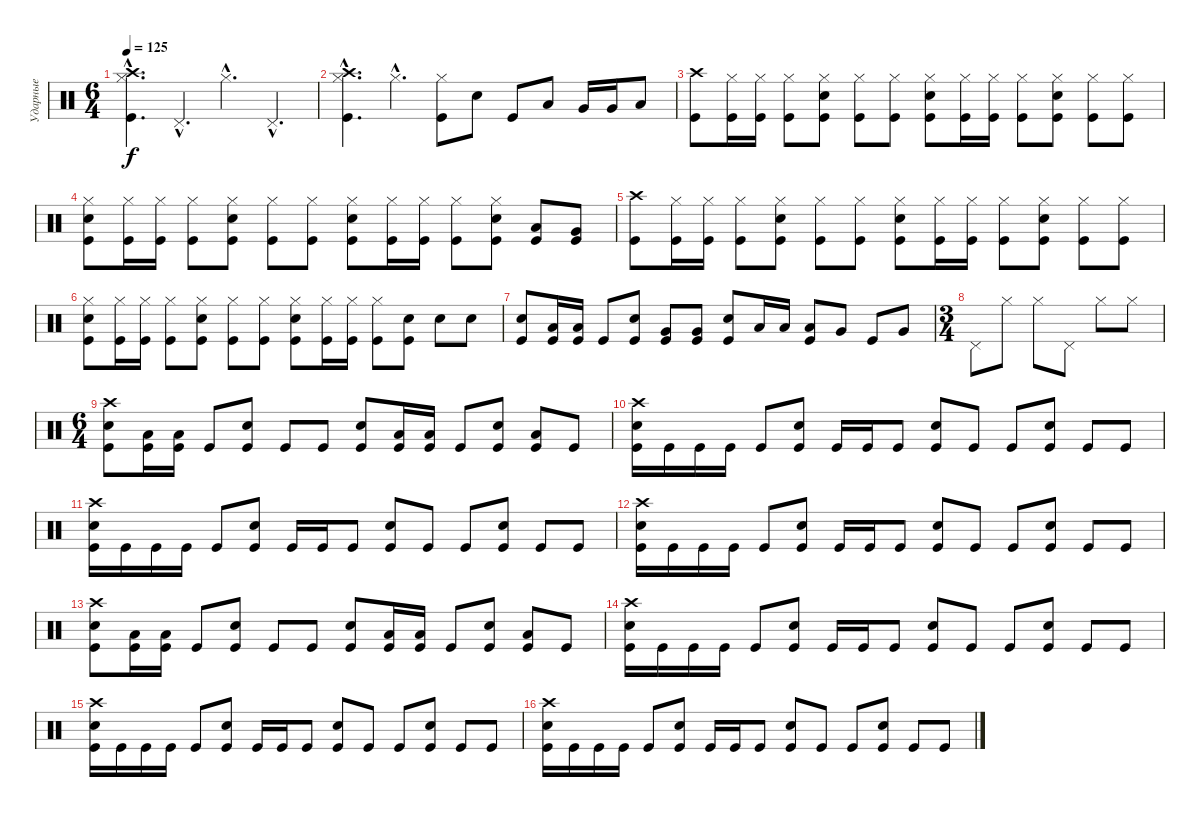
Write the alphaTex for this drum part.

\track ("Ударные" "Ударные") {instrument percussion}
\staff {score}
\articulation defaults
\ts (6 4)
\tempo 125
\clef neutral
\ks c
("Crash high (hit)"{hac} "Hi-Hat (closed)"{hac} "Kick (hit)"{hac}).4{d dy f} "Pedal Hi-Hat (hit)"{hac}.4{d} "Hi-Hat (closed)"{hac}.4{d} "Pedal Hi-Hat (hit)"{hac}.4{d} |
("Crash high (hit)"{hac} "Hi-Hat (closed)"{hac} "Kick (hit)"{hac}).4{d} "Hi-Hat (closed)"{hac}.4{d} ("Hi-Hat (closed)" "Kick (hit)").8 "Electric Snare (hit)".8 "Kick (hit)".8 "Low Tom (hit)".8 "Very Low Tom (hit)".16 "Very Low Tom (hit)".16 "Low Tom (hit)".8 |
("Crash high (hit)" "Kick (hit)").8 ("Hi-Hat (closed)" "Kick (hit)").16 ("Hi-Hat (closed)" "Kick (hit)").16 ("Hi-Hat (closed)" "Kick (hit)").8 ("Hi-Hat (closed)" "Electric Snare (hit)" "Kick (hit)").8 ("Hi-Hat (closed)" "Kick (hit)").8 ("Hi-Hat (closed)" "Kick (hit)").8 ("Hi-Hat (closed)" "Electric Snare (hit)" "Kick (hit)").8 ("Hi-Hat (closed)" "Kick (hit)").16 ("Hi-Hat (closed)" "Kick (hit)").16 ("Hi-Hat (closed)" "Kick (hit)").8 ("Hi-Hat (closed)" "Electric Snare (hit)" "Kick (hit)").8 ("Hi-Hat (closed)" "Kick (hit)").8 ("Hi-Hat (closed)" "Kick (hit)").8 |
("Hi-Hat (closed)" "Electric Snare (hit)" "Kick (hit)").8 ("Hi-Hat (closed)" "Kick (hit)").16 ("Hi-Hat (closed)" "Kick (hit)").16 ("Hi-Hat (closed)" "Kick (hit)").8 ("Hi-Hat (closed)" "Electric Snare (hit)" "Kick (hit)").8 ("Hi-Hat (closed)" "Kick (hit)").8 ("Hi-Hat (closed)" "Kick (hit)").8 ("Hi-Hat (closed)" "Electric Snare (hit)" "Kick (hit)").8 ("Hi-Hat (closed)" "Kick (hit)").16 ("Hi-Hat (closed)" "Kick (hit)").16 ("Hi-Hat (closed)" "Kick (hit)").8 ("Hi-Hat (closed)" "Electric Snare (hit)" "Kick (hit)").8 ("Low Tom (hit)" "Kick (hit)").8 ("Very Low Tom (hit)" "Kick (hit)").8 |
("Crash high (hit)" "Kick (hit)").8 ("Hi-Hat (closed)" "Kick (hit)").16 ("Hi-Hat (closed)" "Kick (hit)").16 ("Hi-Hat (closed)" "Kick (hit)").8 ("Hi-Hat (closed)" "Electric Snare (hit)" "Kick (hit)").8 ("Hi-Hat (closed)" "Kick (hit)").8 ("Hi-Hat (closed)" "Kick (hit)").8 ("Hi-Hat (closed)" "Electric Snare (hit)" "Kick (hit)").8 ("Hi-Hat (closed)" "Kick (hit)").16 ("Hi-Hat (closed)" "Kick (hit)").16 ("Hi-Hat (closed)" "Kick (hit)").8 ("Hi-Hat (closed)" "Electric Snare (hit)" "Kick (hit)").8 ("Hi-Hat (closed)" "Kick (hit)").8 ("Hi-Hat (closed)" "Kick (hit)").8 |
("Hi-Hat (closed)" "Electric Snare (hit)" "Kick (hit)").8 ("Hi-Hat (closed)" "Kick (hit)").16 ("Hi-Hat (closed)" "Kick (hit)").16 ("Hi-Hat (closed)" "Kick (hit)").8 ("Hi-Hat (closed)" "Electric Snare (hit)" "Kick (hit)").8 ("Hi-Hat (closed)" "Kick (hit)").8 ("Hi-Hat (closed)" "Kick (hit)").8 ("Hi-Hat (closed)" "Electric Snare (hit)" "Kick (hit)").8 ("Hi-Hat (closed)" "Kick (hit)").16 ("Hi-Hat (closed)" "Kick (hit)").16 ("Hi-Hat (closed)" "Kick (hit)").8 ("Electric Snare (hit)" "Kick (hit)").8 "Electric Snare (hit)".8 "Electric Snare (hit)".8 |
("Electric Snare (hit)" "Kick (hit)").8 ("Low Tom (hit)" "Kick (hit)").16 ("Low Tom (hit)" "Kick (hit)").16 "Kick (hit)".8 ("Electric Snare (hit)" "Kick (hit)").8 ("Very Low Tom (hit)" "Kick (hit)").8 ("Very Low Tom (hit)" "Kick (hit)").8 ("Electric Snare (hit)" "Kick (hit)").8 "Low Tom (hit)".16 "Low Tom (hit)".16 ("Low Tom (hit)" "Kick (hit)").8 "Very Low Tom (hit)".8 "Kick (hit)".8 "Very Low Tom (hit)".8 |
\ts (3 4)
"Pedal Hi-Hat (hit)".8 "Hi-Hat (closed)".8 "Hi-Hat (closed)".8 "Pedal Hi-Hat (hit)".8 "Hi-Hat (closed)".8 "Hi-Hat (closed)".8 |
\ts (6 4)
("Crash high (hit)" "Electric Snare (hit)" "Kick (hit)").8 ("Low Tom (hit)" "Kick (hit)").16 ("Low Tom (hit)" "Kick (hit)").16 "Kick (hit)".8 ("Electric Snare (hit)" "Kick (hit)").8 "Kick (hit)".8 "Kick (hit)".8 ("Electric Snare (hit)" "Kick (hit)").8 ("Low Tom (hit)" "Kick (hit)").16 ("Low Tom (hit)" "Kick (hit)").16 "Kick (hit)".8 ("Electric Snare (hit)" "Kick (hit)").8 ("Low Tom (hit)" "Kick (hit)").8 "Kick (hit)".8 |
("Crash high (hit)" "Electric Snare (hit)" "Kick (hit)").16 "Kick (hit)".16 "Kick (hit)".16 "Kick (hit)".16 "Kick (hit)".8 ("Electric Snare (hit)" "Kick (hit)").8 "Kick (hit)".16 "Kick (hit)".16 "Kick (hit)".8 ("Electric Snare (hit)" "Kick (hit)").8 "Kick (hit)".8 "Kick (hit)".8 ("Electric Snare (hit)" "Kick (hit)").8 "Kick (hit)".8 "Kick (hit)".8 |
("Crash high (hit)" "Electric Snare (hit)" "Kick (hit)").16 "Kick (hit)".16 "Kick (hit)".16 "Kick (hit)".16 "Kick (hit)".8 ("Electric Snare (hit)" "Kick (hit)").8 "Kick (hit)".16 "Kick (hit)".16 "Kick (hit)".8 ("Electric Snare (hit)" "Kick (hit)").8 "Kick (hit)".8 "Kick (hit)".8 ("Electric Snare (hit)" "Kick (hit)").8 "Kick (hit)".8 "Kick (hit)".8 |
("Crash high (hit)" "Electric Snare (hit)" "Kick (hit)").16 "Kick (hit)".16 "Kick (hit)".16 "Kick (hit)".16 "Kick (hit)".8 ("Electric Snare (hit)" "Kick (hit)").8 "Kick (hit)".16 "Kick (hit)".16 "Kick (hit)".8 ("Electric Snare (hit)" "Kick (hit)").8 "Kick (hit)".8 "Kick (hit)".8 ("Electric Snare (hit)" "Kick (hit)").8 "Kick (hit)".8 "Kick (hit)".8 |
("Crash high (hit)" "Electric Snare (hit)" "Kick (hit)").8 ("Low Tom (hit)" "Kick (hit)").16 ("Low Tom (hit)" "Kick (hit)").16 "Kick (hit)".8 ("Electric Snare (hit)" "Kick (hit)").8 "Kick (hit)".8 "Kick (hit)".8 ("Electric Snare (hit)" "Kick (hit)").8 ("Low Tom (hit)" "Kick (hit)").16 ("Low Tom (hit)" "Kick (hit)").16 "Kick (hit)".8 ("Electric Snare (hit)" "Kick (hit)").8 ("Low Tom (hit)" "Kick (hit)").8 "Kick (hit)".8 |
("Crash high (hit)" "Electric Snare (hit)" "Kick (hit)").16 "Kick (hit)".16 "Kick (hit)".16 "Kick (hit)".16 "Kick (hit)".8 ("Electric Snare (hit)" "Kick (hit)").8 "Kick (hit)".16 "Kick (hit)".16 "Kick (hit)".8 ("Electric Snare (hit)" "Kick (hit)").8 "Kick (hit)".8 "Kick (hit)".8 ("Electric Snare (hit)" "Kick (hit)").8 "Kick (hit)".8 "Kick (hit)".8 |
("Crash high (hit)" "Electric Snare (hit)" "Kick (hit)").16 "Kick (hit)".16 "Kick (hit)".16 "Kick (hit)".16 "Kick (hit)".8 ("Electric Snare (hit)" "Kick (hit)").8 "Kick (hit)".16 "Kick (hit)".16 "Kick (hit)".8 ("Electric Snare (hit)" "Kick (hit)").8 "Kick (hit)".8 "Kick (hit)".8 ("Electric Snare (hit)" "Kick (hit)").8 "Kick (hit)".8 "Kick (hit)".8 |
("Crash high (hit)" "Electric Snare (hit)" "Kick (hit)").16 "Kick (hit)".16 "Kick (hit)".16 "Kick (hit)".16 "Kick (hit)".8 ("Electric Snare (hit)" "Kick (hit)").8 "Kick (hit)".16 "Kick (hit)".16 "Kick (hit)".8 ("Electric Snare (hit)" "Kick (hit)").8 "Kick (hit)".8 "Kick (hit)".8 ("Electric Snare (hit)" "Kick (hit)").8 "Kick (hit)".8 "Kick (hit)".8
